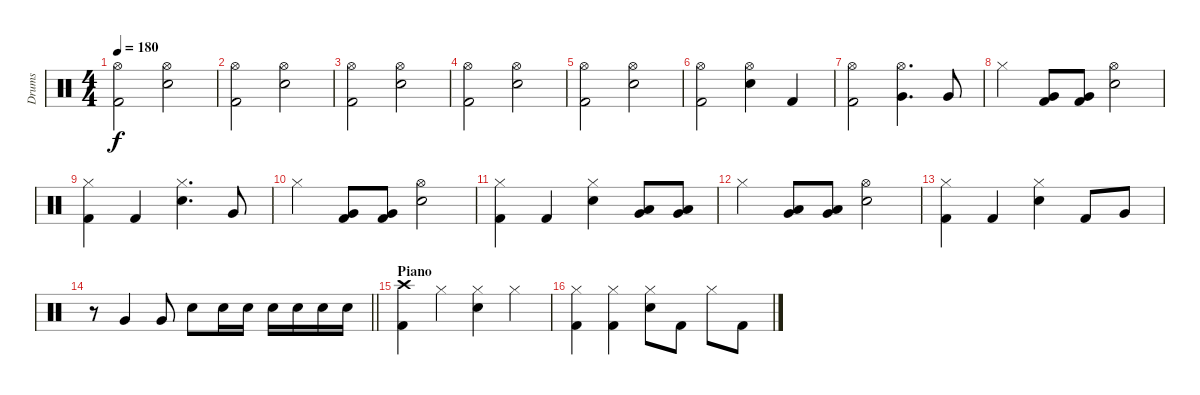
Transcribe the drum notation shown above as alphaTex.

\track ("Drums" "Drums") {instrument percussion}
\staff {score}
\articulation defaults
\ts (4 4)
\tempo 180
\clef neutral
\ks c
("Hi-Hat (open)" "Kick (hit) 2").2{dy f} ("Hi-Hat (open)" "Snare (hit) 2").2 |
("Hi-Hat (open)" "Kick (hit) 2").2 ("Hi-Hat (open)" "Snare (hit) 2").2 |
("Hi-Hat (open)" "Kick (hit) 2").2 ("Hi-Hat (open)" "Snare (hit) 2").2 |
("Hi-Hat (open)" "Kick (hit) 2").2 ("Hi-Hat (open)" "Snare (hit) 2").2 |
("Hi-Hat (open)" "Kick (hit) 2").2 ("Hi-Hat (open)" "Snare (hit) 2").2 |
("Hi-Hat (open)" "Kick (hit) 2").2 ("Hi-Hat (open)" "Snare (hit) 2").4 "Kick (hit) 2".4 |
("Hi-Hat (open)" "Kick (hit) 2").2 ("Hi-Hat (open)" "Very Low Tom (hit)").4{d} "Very Low Tom (hit)".8 |
"Hi-Hat (closed)".4 ("Very Low Tom (hit)" "Kick (hit) 2").8 ("Very Low Tom (hit)" "Kick (hit) 2").8 ("Hi-Hat (open)" "Snare (hit) 2").2 |
("Hi-Hat (closed)" "Kick (hit) 2").4 "Kick (hit) 2".4 ("Hi-Hat (closed)" "Snare (hit) 2").4{d} "Very Low Tom (hit)".8 |
"Hi-Hat (closed)".4 ("Very Low Tom (hit)" "Kick (hit) 2").8 ("Very Low Tom (hit)" "Kick (hit) 2").8 ("Hi-Hat (open)" "Snare (hit) 2").2 |
("Hi-Hat (closed)" "Kick (hit) 2").4 "Kick (hit) 2".4 ("Hi-Hat (closed)" "Snare (hit) 2").4 ("Very Low Tom (hit)" "Low Floor Tom (hit)").8 ("Very Low Tom (hit)" "Low Floor Tom (hit)").8 |
"Hi-Hat (closed)".4 ("Very Low Tom (hit)" "Low Floor Tom (hit)").8 ("Very Low Tom (hit)" "Low Floor Tom (hit)").8 ("Hi-Hat (open)" "Snare (hit) 2").2 |
("Hi-Hat (closed)" "Kick (hit) 2").4 "Kick (hit) 2".4 ("Hi-Hat (closed)" "Snare (hit) 2").4 "Kick (hit) 2".8 "Very Low Tom (hit)".8 |
\barLineRight lightlight
r.8 "Very Low Tom (hit)".4 "Very Low Tom (hit)".8 "Snare (hit) 2".8 "Snare (hit) 2".16 "Snare (hit) 2".16 "Snare (hit) 2".16 "Snare (hit) 2".16 "Snare (hit) 2".16 "Snare (hit) 2".16 |
\section ("" "Piano")
("Crash high (hit)" "Kick (hit) 2").4 "Hi-Hat (closed)".4 ("Hi-Hat (closed)" "Snare (hit) 2").4 "Hi-Hat (closed)".4 |
("Hi-Hat (closed)" "Kick (hit) 2").4 ("Hi-Hat (closed)" "Kick (hit) 2").4 ("Hi-Hat (closed)" "Snare (hit) 2").8 "Kick (hit) 2".8 "Hi-Hat (closed)".8 "Kick (hit) 2".8
